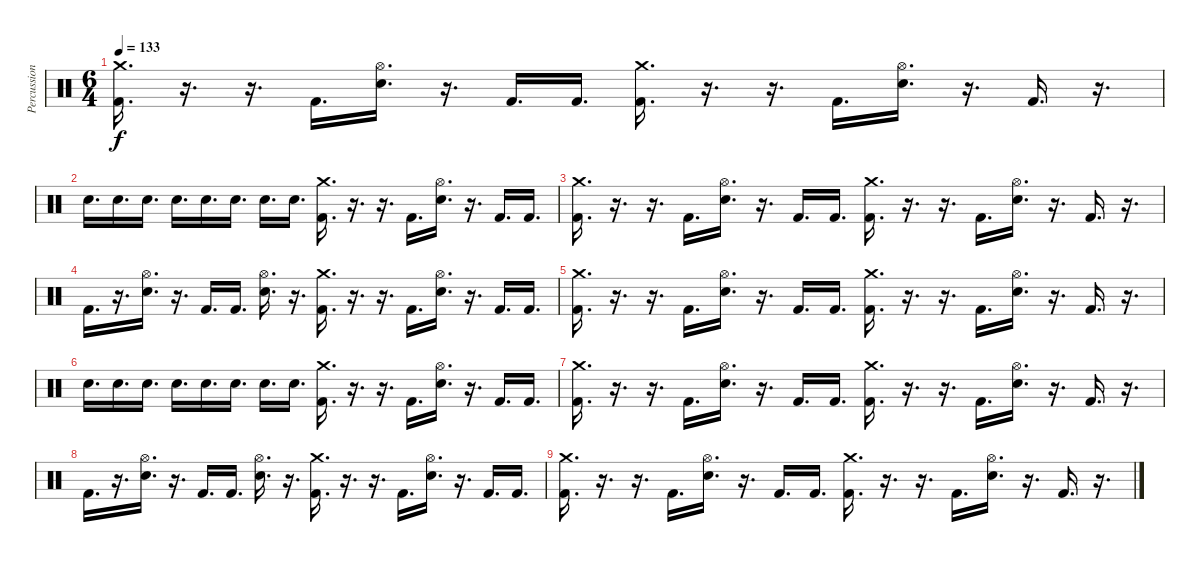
\track ("Percussion" "Percussion") {instrument percussion}
\staff {score}
\articulation defaults
\ts (6 4)
\tempo 133
\clef neutral
\ks c
("Crash medium (hit)" "Kick (hit) 2").16{d dy f} r.16{d} r.16{d} "Kick (hit) 2".16{d} ("Hi-Hat (open)" "Electric Snare (hit)").16{d} r.16{d} "Kick (hit) 2".16{d} "Kick (hit) 2".16{d} ("Crash medium (hit)" "Kick (hit) 2").16{d} r.16{d} r.16{d} "Kick (hit) 2".16{d} ("Hi-Hat (open)" "Electric Snare (hit)").16{d} r.16{d} "Kick (hit) 2".16{d} r.16{d} |
"Electric Snare (hit)".16{d} "Electric Snare (hit)".16{d} "Electric Snare (hit)".16{d} "Electric Snare (hit)".16{d} "Electric Snare (hit)".16{d} "Electric Snare (hit)".16{d} "Electric Snare (hit)".16{d} "Electric Snare (hit)".16{d} ("Crash medium (hit)" "Kick (hit) 2").16{d} r.16{d} r.16{d} "Kick (hit) 2".16{d} ("Hi-Hat (open)" "Electric Snare (hit)").16{d} r.16{d} "Kick (hit) 2".16{d} "Kick (hit) 2".16{d} |
("Crash medium (hit)" "Kick (hit) 2").16{d} r.16{d} r.16{d} "Kick (hit) 2".16{d} ("Hi-Hat (open)" "Electric Snare (hit)").16{d} r.16{d} "Kick (hit) 2".16{d} "Kick (hit) 2".16{d} ("Crash medium (hit)" "Kick (hit) 2").16{d} r.16{d} r.16{d} "Kick (hit) 2".16{d} ("Hi-Hat (open)" "Electric Snare (hit)").16{d} r.16{d} "Kick (hit) 2".16{d} r.16{d} |
"Kick (hit) 2".16{d} r.16{d} ("Hi-Hat (open)" "Electric Snare (hit)").16{d} r.16{d} "Kick (hit) 2".16{d} "Kick (hit) 2".16{d} ("Hi-Hat (open)" "Electric Snare (hit)").16{d} r.16{d} ("Crash medium (hit)" "Kick (hit) 2").16{d} r.16{d} r.16{d} "Kick (hit) 2".16{d} ("Hi-Hat (open)" "Electric Snare (hit)").16{d} r.16{d} "Kick (hit) 2".16{d} "Kick (hit) 2".16{d} |
("Crash medium (hit)" "Kick (hit) 2").16{d} r.16{d} r.16{d} "Kick (hit) 2".16{d} ("Hi-Hat (open)" "Electric Snare (hit)").16{d} r.16{d} "Kick (hit) 2".16{d} "Kick (hit) 2".16{d} ("Crash medium (hit)" "Kick (hit) 2").16{d} r.16{d} r.16{d} "Kick (hit) 2".16{d} ("Hi-Hat (open)" "Electric Snare (hit)").16{d} r.16{d} "Kick (hit) 2".16{d} r.16{d} |
"Electric Snare (hit)".16{d volume 0} "Electric Snare (hit)".16{d} "Electric Snare (hit)".16{d} "Electric Snare (hit)".16{d} "Electric Snare (hit)".16{d} "Electric Snare (hit)".16{d} "Electric Snare (hit)".16{d} "Electric Snare (hit)".16{d} ("Crash medium (hit)" "Kick (hit) 2").16{d} r.16{d} r.16{d} "Kick (hit) 2".16{d} ("Hi-Hat (open)" "Electric Snare (hit)").16{d} r.16{d} "Kick (hit) 2".16{d} "Kick (hit) 2".16{d} |
("Crash medium (hit)" "Kick (hit) 2").16{d} r.16{d} r.16{d} "Kick (hit) 2".16{d} ("Hi-Hat (open)" "Electric Snare (hit)").16{d} r.16{d} "Kick (hit) 2".16{d} "Kick (hit) 2".16{d} ("Crash medium (hit)" "Kick (hit) 2").16{d} r.16{d} r.16{d} "Kick (hit) 2".16{d} ("Hi-Hat (open)" "Electric Snare (hit)").16{d} r.16{d} "Kick (hit) 2".16{d} r.16{d} |
"Kick (hit) 2".16{d} r.16{d} ("Hi-Hat (open)" "Electric Snare (hit)").16{d} r.16{d} "Kick (hit) 2".16{d} "Kick (hit) 2".16{d} ("Hi-Hat (open)" "Electric Snare (hit)").16{d} r.16{d} ("Crash medium (hit)" "Kick (hit) 2").16{d} r.16{d} r.16{d} "Kick (hit) 2".16{d} ("Hi-Hat (open)" "Electric Snare (hit)").16{d} r.16{d} "Kick (hit) 2".16{d} "Kick (hit) 2".16{d} |
("Crash medium (hit)" "Kick (hit) 2").16{d} r.16{d} r.16{d} "Kick (hit) 2".16{d} ("Hi-Hat (open)" "Electric Snare (hit)").16{d} r.16{d} "Kick (hit) 2".16{d} "Kick (hit) 2".16{d} ("Crash medium (hit)" "Kick (hit) 2").16{d} r.16{d} r.16{d} "Kick (hit) 2".16{d} ("Hi-Hat (open)" "Electric Snare (hit)").16{d} r.16{d} "Kick (hit) 2".16{d} r.16{d}
